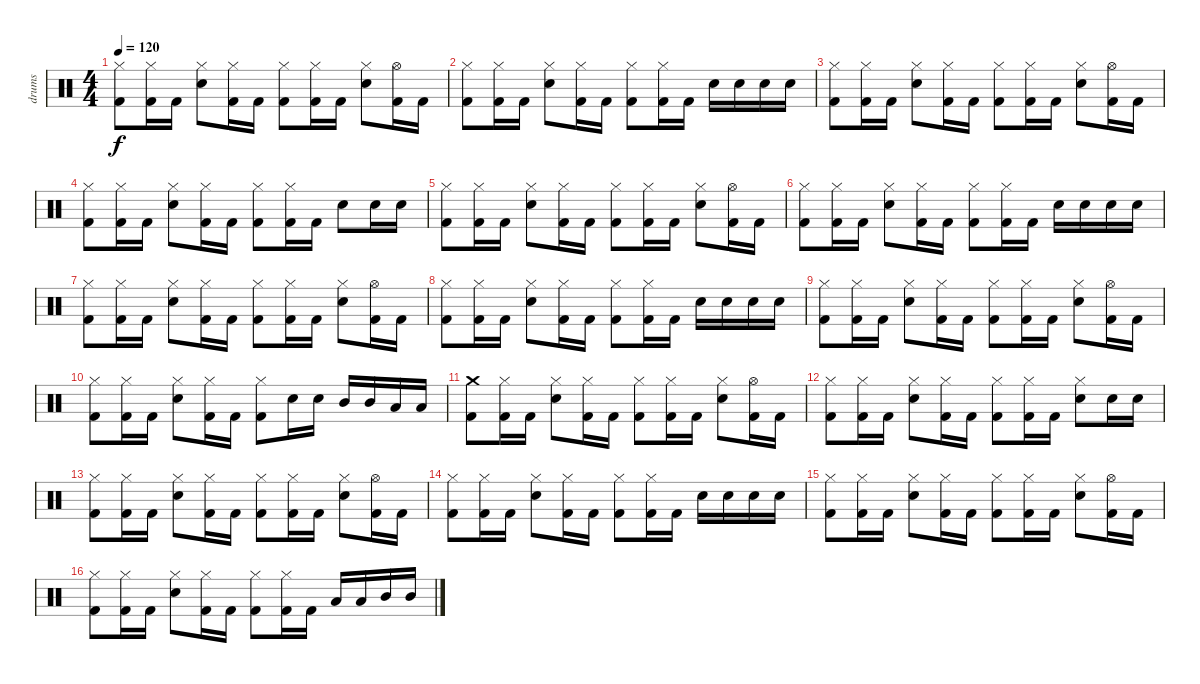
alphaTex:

\track ("drums" "drums") {instrument percussion}
\staff {score}
\articulation defaults
\ts (4 4)
\tempo 120
\clef neutral
\ks c
("Hi-Hat (closed)" "Kick (hit) 2").8{dy f} ("Hi-Hat (closed)" "Kick (hit) 2").16 "Kick (hit) 2".16 ("Hi-Hat (closed)" "Snare (hit) 2").8 ("Hi-Hat (closed)" "Kick (hit) 2").16 "Kick (hit) 2".16 ("Hi-Hat (closed)" "Kick (hit) 2").8 ("Hi-Hat (closed)" "Kick (hit) 2").16 "Kick (hit) 2".16 ("Hi-Hat (closed)" "Snare (hit) 2").8 ("Hi-Hat (open)" "Kick (hit) 2").16 "Kick (hit) 2".16 |
("Hi-Hat (closed)" "Kick (hit) 2").8 ("Hi-Hat (closed)" "Kick (hit) 2").16 "Kick (hit) 2".16 ("Hi-Hat (closed)" "Snare (hit) 2").8 ("Hi-Hat (closed)" "Kick (hit) 2").16 "Kick (hit) 2".16 ("Hi-Hat (closed)" "Kick (hit) 2").8 ("Hi-Hat (closed)" "Kick (hit) 2").16 "Kick (hit) 2".16 "Snare (hit) 2".16 "Snare (hit) 2".16 "Snare (hit) 2".16 "Snare (hit) 2".16 |
("Hi-Hat (closed)" "Kick (hit) 2").8 ("Hi-Hat (closed)" "Kick (hit) 2").16 "Kick (hit) 2".16 ("Hi-Hat (closed)" "Snare (hit) 2").8 ("Hi-Hat (closed)" "Kick (hit) 2").16 "Kick (hit) 2".16 ("Hi-Hat (closed)" "Kick (hit) 2").8 ("Hi-Hat (closed)" "Kick (hit) 2").16 "Kick (hit) 2".16 ("Hi-Hat (closed)" "Snare (hit) 2").8 ("Hi-Hat (open)" "Kick (hit) 2").16 "Kick (hit) 2".16 |
("Hi-Hat (closed)" "Kick (hit) 2").8 ("Hi-Hat (closed)" "Kick (hit) 2").16 "Kick (hit) 2".16 ("Hi-Hat (closed)" "Snare (hit) 2").8 ("Hi-Hat (closed)" "Kick (hit) 2").16 "Kick (hit) 2".16 ("Hi-Hat (closed)" "Kick (hit) 2").8 ("Hi-Hat (closed)" "Kick (hit) 2").16 "Kick (hit) 2".16 "Snare (hit) 2".8 "Snare (hit) 2".16 "Snare (hit) 2".16 |
("Hi-Hat (closed)" "Kick (hit) 2").8 ("Hi-Hat (closed)" "Kick (hit) 2").16 "Kick (hit) 2".16 ("Hi-Hat (closed)" "Snare (hit) 2").8 ("Hi-Hat (closed)" "Kick (hit) 2").16 "Kick (hit) 2".16 ("Hi-Hat (closed)" "Kick (hit) 2").8 ("Hi-Hat (closed)" "Kick (hit) 2").16 "Kick (hit) 2".16 ("Hi-Hat (closed)" "Snare (hit) 2").8 ("Hi-Hat (open)" "Kick (hit) 2").16 "Kick (hit) 2".16 |
("Hi-Hat (closed)" "Kick (hit) 2").8 ("Hi-Hat (closed)" "Kick (hit) 2").16 "Kick (hit) 2".16 ("Hi-Hat (closed)" "Snare (hit) 2").8 ("Hi-Hat (closed)" "Kick (hit) 2").16 "Kick (hit) 2".16 ("Hi-Hat (closed)" "Kick (hit) 2").8 ("Hi-Hat (closed)" "Kick (hit) 2").16 "Kick (hit) 2".16 "Snare (hit) 2".16 "Snare (hit) 2".16 "Snare (hit) 2".16 "Snare (hit) 2".16 |
("Hi-Hat (closed)" "Kick (hit) 2").8 ("Hi-Hat (closed)" "Kick (hit) 2").16 "Kick (hit) 2".16 ("Hi-Hat (closed)" "Snare (hit) 2").8 ("Hi-Hat (closed)" "Kick (hit) 2").16 "Kick (hit) 2".16 ("Hi-Hat (closed)" "Kick (hit) 2").8 ("Hi-Hat (closed)" "Kick (hit) 2").16 "Kick (hit) 2".16 ("Hi-Hat (closed)" "Snare (hit) 2").8 ("Hi-Hat (open)" "Kick (hit) 2").16 "Kick (hit) 2".16 |
("Hi-Hat (closed)" "Kick (hit) 2").8 ("Hi-Hat (closed)" "Kick (hit) 2").16 "Kick (hit) 2".16 ("Hi-Hat (closed)" "Snare (hit) 2").8 ("Hi-Hat (closed)" "Kick (hit) 2").16 "Kick (hit) 2".16 ("Hi-Hat (closed)" "Kick (hit) 2").8 ("Hi-Hat (closed)" "Kick (hit) 2").16 "Kick (hit) 2".16 "Snare (hit) 2".16 "Snare (hit) 2".16 "Snare (hit) 2".16 "Snare (hit) 2".16 |
("Hi-Hat (closed)" "Kick (hit) 2").8 ("Hi-Hat (closed)" "Kick (hit) 2").16 "Kick (hit) 2".16 ("Hi-Hat (closed)" "Snare (hit) 2").8 ("Hi-Hat (closed)" "Kick (hit) 2").16 "Kick (hit) 2".16 ("Hi-Hat (closed)" "Kick (hit) 2").8 ("Hi-Hat (closed)" "Kick (hit) 2").16 "Kick (hit) 2".16 ("Hi-Hat (closed)" "Snare (hit) 2").8 ("Hi-Hat (open)" "Kick (hit) 2").16 "Kick (hit) 2".16 |
("Hi-Hat (closed)" "Kick (hit) 2").8 ("Hi-Hat (closed)" "Kick (hit) 2").16 "Kick (hit) 2".16 ("Hi-Hat (closed)" "Snare (hit) 2").8 ("Hi-Hat (closed)" "Kick (hit) 2").16 "Kick (hit) 2".16 ("Hi-Hat (closed)" "Kick (hit) 2").8 "Snare (hit) 2".16 "Snare (hit) 2".16 "Mid Tom (hit)".16 "Mid Tom (hit)".16 "Low Tom (hit)".16 "Low Tom (hit)".16 |
("Crash medium (hit)" "Kick (hit) 2").8 ("Hi-Hat (closed)" "Kick (hit) 2").16 "Kick (hit) 2".16 ("Hi-Hat (closed)" "Snare (hit) 2").8 ("Hi-Hat (closed)" "Kick (hit) 2").16 "Kick (hit) 2".16 ("Hi-Hat (closed)" "Kick (hit) 2").8 ("Hi-Hat (closed)" "Kick (hit) 2").16 "Kick (hit) 2".16 ("Hi-Hat (closed)" "Snare (hit) 2").8 ("Hi-Hat (open)" "Kick (hit) 2").16 "Kick (hit) 2".16 |
("Hi-Hat (closed)" "Kick (hit) 2").8 ("Hi-Hat (closed)" "Kick (hit) 2").16 "Kick (hit) 2".16 ("Hi-Hat (closed)" "Snare (hit) 2").8 ("Hi-Hat (closed)" "Kick (hit) 2").16 "Kick (hit) 2".16 ("Hi-Hat (closed)" "Kick (hit) 2").8 ("Hi-Hat (closed)" "Kick (hit) 2").16 "Kick (hit) 2".16 ("Hi-Hat (closed)" "Snare (hit) 2").8 "Snare (hit) 2".16 "Snare (hit) 2".16 |
("Hi-Hat (closed)" "Kick (hit) 2").8 ("Hi-Hat (closed)" "Kick (hit) 2").16 "Kick (hit) 2".16 ("Hi-Hat (closed)" "Snare (hit) 2").8 ("Hi-Hat (closed)" "Kick (hit) 2").16 "Kick (hit) 2".16 ("Hi-Hat (closed)" "Kick (hit) 2").8 ("Hi-Hat (closed)" "Kick (hit) 2").16 "Kick (hit) 2".16 ("Hi-Hat (closed)" "Snare (hit) 2").8 ("Hi-Hat (open)" "Kick (hit) 2").16 "Kick (hit) 2".16 |
("Hi-Hat (closed)" "Kick (hit) 2").8 ("Hi-Hat (closed)" "Kick (hit) 2").16 "Kick (hit) 2".16 ("Hi-Hat (closed)" "Snare (hit) 2").8 ("Hi-Hat (closed)" "Kick (hit) 2").16 "Kick (hit) 2".16 ("Hi-Hat (closed)" "Kick (hit) 2").8 ("Hi-Hat (closed)" "Kick (hit) 2").16 "Kick (hit) 2".16 "Snare (hit) 2".16 "Snare (hit) 2".16 "Snare (hit) 2".16 "Snare (hit) 2".16 |
("Hi-Hat (closed)" "Kick (hit) 2").8 ("Hi-Hat (closed)" "Kick (hit) 2").16 "Kick (hit) 2".16 ("Hi-Hat (closed)" "Snare (hit) 2").8 ("Hi-Hat (closed)" "Kick (hit) 2").16 "Kick (hit) 2".16 ("Hi-Hat (closed)" "Kick (hit) 2").8 ("Hi-Hat (closed)" "Kick (hit) 2").16 "Kick (hit) 2".16 ("Hi-Hat (closed)" "Snare (hit) 2").8 ("Hi-Hat (open)" "Kick (hit) 2").16 "Kick (hit) 2".16 |
("Hi-Hat (closed)" "Kick (hit) 2").8 ("Hi-Hat (closed)" "Kick (hit) 2").16 "Kick (hit) 2".16 ("Hi-Hat (closed)" "Snare (hit) 2").8 ("Hi-Hat (closed)" "Kick (hit) 2").16 "Kick (hit) 2".16 ("Hi-Hat (closed)" "Kick (hit) 2").8 ("Hi-Hat (closed)" "Kick (hit) 2").16 "Kick (hit) 2".16 "Low Tom (hit)".16 "Low Tom (hit)".16 "Mid Tom (hit)".16 "Mid Tom (hit)".16
